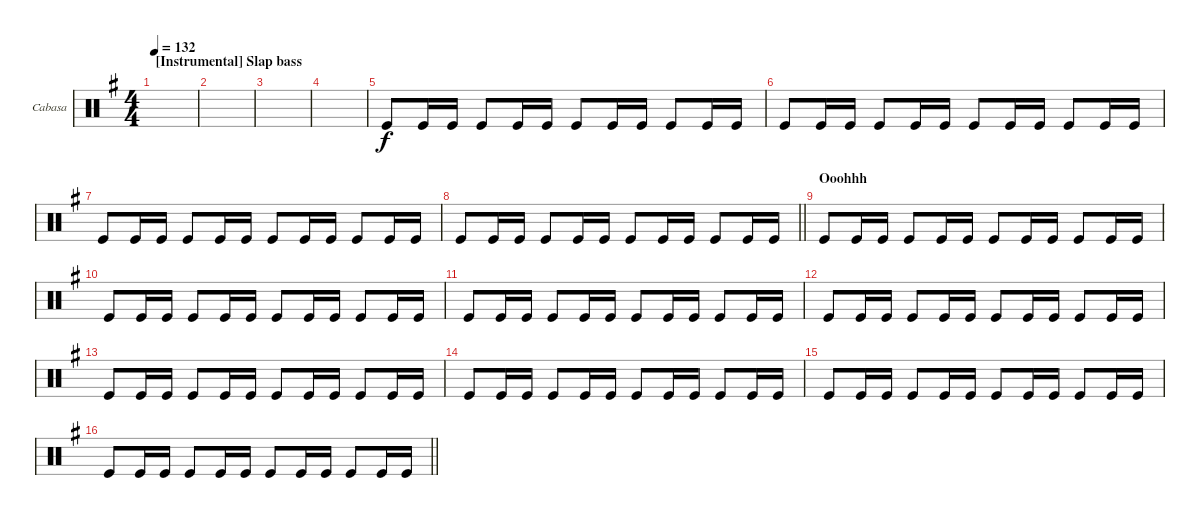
\bracketExtendMode groupsimilarinstruments
\firstSystemTrackNameOrientation horizontal
\otherSystemsTrackNameOrientation horizontal
\track ("Cabasa" "Cabasa") {instrument percussion}
\staff {score}
\articulation defaults
\ts (4 4)
\section ("" "[Instrumental] Slap bass")
\tempo 132
\clef neutral
\scale
0.333333
\ks g
|
\scale
0.333333 |
\scale
0.333333 |
\scale
0.333333 |
\scale
0.333333 "Kick (hit)".8 "Kick (hit)".16 "Kick (hit)".16 "Kick (hit)".8 "Kick (hit)".16 "Kick (hit)".16 "Kick (hit)".8 "Kick (hit)".16 "Kick (hit)".16 "Kick (hit)".8 "Kick (hit)".16 "Kick (hit)".16 |
\scale
0.333333 "Kick (hit)".8 "Kick (hit)".16 "Kick (hit)".16 "Kick (hit)".8 "Kick (hit)".16 "Kick (hit)".16 "Kick (hit)".8 "Kick (hit)".16 "Kick (hit)".16 "Kick (hit)".8 "Kick (hit)".16 "Kick (hit)".16 |
\scale
0.333333 "Kick (hit)".8 "Kick (hit)".16 "Kick (hit)".16 "Kick (hit)".8 "Kick (hit)".16 "Kick (hit)".16 "Kick (hit)".8 "Kick (hit)".16 "Kick (hit)".16 "Kick (hit)".8 "Kick (hit)".16 "Kick (hit)".16 |
\scale
0.333333
\barLineRight lightlight "Kick (hit)".8 "Kick (hit)".16 "Kick (hit)".16 "Kick (hit)".8 "Kick (hit)".16 "Kick (hit)".16 "Kick (hit)".8 "Kick (hit)".16 "Kick (hit)".16 "Kick (hit)".8 "Kick (hit)".16 "Kick (hit)".16
|
\section ("" "Ooohhh")
\scale
0.333333 "Kick (hit)".8 "Kick (hit)".16 "Kick (hit)".16 "Kick (hit)".8 "Kick (hit)".16 "Kick (hit)".16 "Kick (hit)".8 "Kick (hit)".16 "Kick (hit)".16 "Kick (hit)".8 "Kick (hit)".16 "Kick (hit)".16 |
\scale
0.333333 "Kick (hit)".8 "Kick (hit)".16 "Kick (hit)".16 "Kick (hit)".8 "Kick (hit)".16 "Kick (hit)".16 "Kick (hit)".8 "Kick (hit)".16 "Kick (hit)".16 "Kick (hit)".8 "Kick (hit)".16 "Kick (hit)".16 |
\scale
0.333333 "Kick (hit)".8 "Kick (hit)".16 "Kick (hit)".16 "Kick (hit)".8 "Kick (hit)".16 "Kick (hit)".16 "Kick (hit)".8 "Kick (hit)".16 "Kick (hit)".16 "Kick (hit)".8 "Kick (hit)".16 "Kick (hit)".16 |
\scale
0.333333 "Kick (hit)".8 "Kick (hit)".16 "Kick (hit)".16 "Kick (hit)".8 "Kick (hit)".16 "Kick (hit)".16 "Kick (hit)".8 "Kick (hit)".16 "Kick (hit)".16 "Kick (hit)".8 "Kick (hit)".16 "Kick (hit)".16 |
\scale
0.333333 "Kick (hit)".8 "Kick (hit)".16 "Kick (hit)".16 "Kick (hit)".8 "Kick (hit)".16 "Kick (hit)".16 "Kick (hit)".8 "Kick (hit)".16 "Kick (hit)".16 "Kick (hit)".8 "Kick (hit)".16 "Kick (hit)".16 |
\scale
0.333333 "Kick (hit)".8 "Kick (hit)".16 "Kick (hit)".16 "Kick (hit)".8 "Kick (hit)".16 "Kick (hit)".16 "Kick (hit)".8 "Kick (hit)".16 "Kick (hit)".16 "Kick (hit)".8 "Kick (hit)".16 "Kick (hit)".16 |
\scale
0.333333 "Kick (hit)".8 "Kick (hit)".16 "Kick (hit)".16 "Kick (hit)".8 "Kick (hit)".16 "Kick (hit)".16 "Kick (hit)".8 "Kick (hit)".16 "Kick (hit)".16 "Kick (hit)".8 "Kick (hit)".16 "Kick (hit)".16 |
\scale
0.333333
\barLineRight lightlight "Kick (hit)".8 "Kick (hit)".16 "Kick (hit)".16 "Kick (hit)".8 "Kick (hit)".16 "Kick (hit)".16 "Kick (hit)".8 "Kick (hit)".16 "Kick (hit)".16 "Kick (hit)".8 "Kick (hit)".16 "Kick (hit)".16
